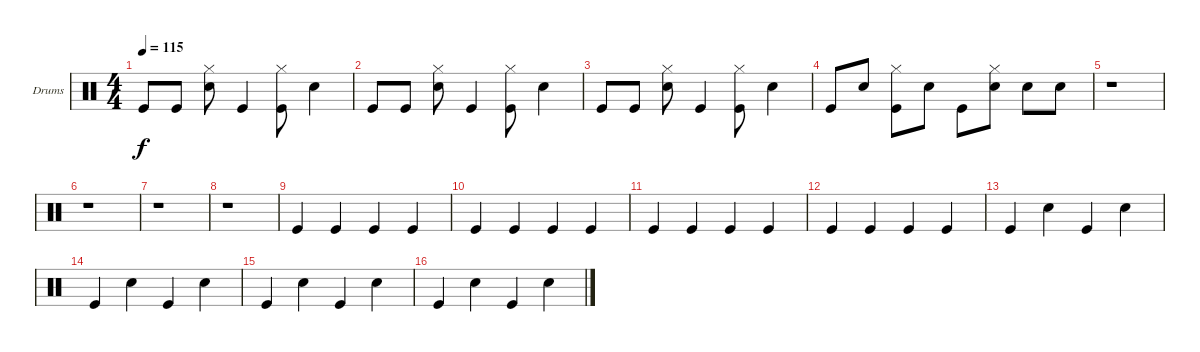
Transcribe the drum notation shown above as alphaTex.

\bracketExtendMode groupsimilarinstruments
\firstSystemTrackNameOrientation horizontal
\otherSystemsTrackNameOrientation horizontal
\track ("Drumkit" "Drums") {instrument percussion}
\staff {score}
\articulation defaults
\ts (4 4)
\tempo 115
\clef neutral
\scale
0.333333
\ks c "Kick (hit)".8{dy f} "Kick (hit)".8
("Snare (hit) 2" "Hi-Hat (closed)").8 "Kick (hit)".4 ("Kick (hit)" "Hi-Hat (closed)").8 "Snare (hit) 2".4 |
\scale
0.333333 "Kick (hit)".8 "Kick (hit)".8 ("Snare (hit) 2" "Hi-Hat (closed)").8 "Kick (hit)".4 ("Kick (hit)" "Hi-Hat (closed)").8 "Snare (hit) 2".4 |
\scale
0.333333 "Kick (hit)".8 "Kick (hit)".8 ("Snare (hit) 2" "Hi-Hat (closed)").8 "Kick (hit)".4 ("Kick (hit)" "Hi-Hat (closed)").8 "Snare (hit) 2".4 |
\scale
0.333333 "Kick (hit)".8 "Snare (hit) 2".8 ("Kick (hit)" "Hi-Hat (closed)").8 "Snare (hit) 2".8 "Kick (hit)".8 ("Snare (hit) 2" "Hi-Hat (closed)").8 "Snare (hit) 2".8 "Snare (hit) 2".8 |
\scale
0.333333 r.1 |
\scale
0.333333 r.1 |
\scale
0.333333 r.1 |
\scale
0.333333 r.1 |
\scale
0.333333 "Kick (hit)".4 "Kick (hit)".4 "Kick (hit)".4 "Kick (hit)".4 |
\scale
0.333333 "Kick (hit)".4 "Kick (hit)".4 "Kick (hit)".4 "Kick (hit)".4 |
\scale
0.333333 "Kick (hit)".4 "Kick (hit)".4 "Kick (hit)".4 "Kick (hit)".4 |
\scale
0.333333 "Kick (hit)".4 "Kick (hit)".4 "Kick (hit)".4 "Kick (hit)".4 |
\scale
0.333333 "Kick (hit)".4 "Snare (hit) 2".4 "Kick (hit)".4 "Snare (hit) 2".4 |
\scale
0.333333 "Kick (hit)".4 "Snare (hit) 2".4 "Kick (hit)".4 "Snare (hit) 2".4 |
\scale
0.333333 "Kick (hit)".4 "Snare (hit) 2".4 "Kick (hit)".4 "Snare (hit) 2".4 |
\scale
0.333333 "Kick (hit)".4 "Snare (hit) 2".4 "Kick (hit)".4 "Snare (hit) 2".4
